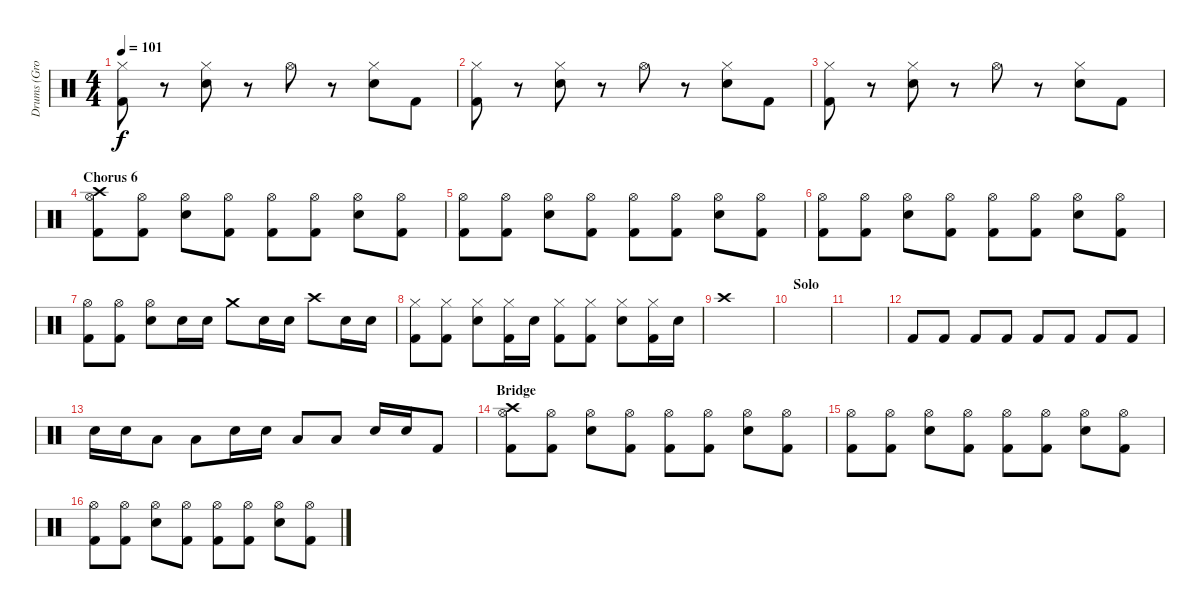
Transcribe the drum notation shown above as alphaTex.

\track ("Drums (Grohl)" "Drums (Gro") {instrument percussion}
\staff {score}
\articulation defaults
\ts (4 4)
\tempo 101
\clef neutral
\ks c
("Hi-Hat (closed)" "Kick (hit) 2").8{dy f} r.8 ("Hi-Hat (closed)" "Snare (hit) 2").8 r.8 "Hi-Hat (open)".8 r.8 ("Hi-Hat (closed)" "Snare (hit) 2").8 "Kick (hit) 2".8 |
("Hi-Hat (closed)" "Kick (hit) 2").8 r.8 ("Hi-Hat (closed)" "Snare (hit) 2").8 r.8 "Hi-Hat (open)".8 r.8 ("Hi-Hat (closed)" "Snare (hit) 2").8 "Kick (hit) 2".8 |
("Hi-Hat (closed)" "Kick (hit) 2").8 r.8 ("Hi-Hat (closed)" "Snare (hit) 2").8 r.8 "Hi-Hat (open)".8 r.8 ("Hi-Hat (closed)" "Snare (hit) 2").8 "Kick (hit) 2".8 |
\section ("" "Chorus 6")
("Hi-Hat (open)" "Kick (hit) 2" "Crash high (hit)").8 ("Hi-Hat (open)" "Kick (hit) 2").8 ("Hi-Hat (open)" "Snare (hit) 2").8 ("Hi-Hat (open)" "Kick (hit) 2").8 ("Hi-Hat (open)" "Kick (hit) 2").8 ("Hi-Hat (open)" "Kick (hit) 2").8 ("Hi-Hat (open)" "Snare (hit) 2").8 ("Hi-Hat (open)" "Kick (hit) 2").8 |
("Hi-Hat (open)" "Kick (hit) 2").8 ("Hi-Hat (open)" "Kick (hit) 2").8 ("Hi-Hat (open)" "Snare (hit) 2").8 ("Hi-Hat (open)" "Kick (hit) 2").8 ("Hi-Hat (open)" "Kick (hit) 2").8 ("Hi-Hat (open)" "Kick (hit) 2").8 ("Hi-Hat (open)" "Snare (hit) 2").8 ("Hi-Hat (open)" "Kick (hit) 2").8 |
("Hi-Hat (open)" "Kick (hit) 2").8 ("Hi-Hat (open)" "Kick (hit) 2").8 ("Hi-Hat (open)" "Snare (hit) 2").8 ("Hi-Hat (open)" "Kick (hit) 2").8 ("Hi-Hat (open)" "Kick (hit) 2").8 ("Hi-Hat (open)" "Kick (hit) 2").8 ("Hi-Hat (open)" "Snare (hit) 2").8 ("Hi-Hat (open)" "Kick (hit) 2").8 |
("Hi-Hat (open)" "Kick (hit) 2").8 ("Hi-Hat (open)" "Kick (hit) 2").8 ("Hi-Hat (open)" "Snare (hit) 2").8 "Snare (hit) 2".16 "Snare (hit) 2".16 "Crash medium (hit)".8 "Snare (hit) 2".16 "Snare (hit) 2".16 "Crash high (hit)".8 "Snare (hit) 2".16 "Snare (hit) 2".16 |
("Hi-Hat (closed)" "Kick (hit) 2").8 ("Hi-Hat (closed)" "Kick (hit) 2").8 ("Hi-Hat (closed)" "Snare (hit) 2").8 ("Hi-Hat (closed)" "Kick (hit) 2").16 "Snare (hit) 2".16 ("Hi-Hat (closed)" "Kick (hit) 2").8 ("Hi-Hat (closed)" "Kick (hit) 2").8 ("Hi-Hat (closed)" "Snare (hit) 2").8 ("Hi-Hat (closed)" "Kick (hit) 2").16 "Snare (hit) 2".16 |
"Crash high (hit)".1 |
\section ("" "Solo")
|
|
"Kick (hit) 2".8 "Kick (hit) 2".8 "Kick (hit) 2".8 "Kick (hit) 2".8 "Kick (hit) 2".8 "Kick (hit) 2".8 "Kick (hit) 2".8 "Kick (hit) 2".8 |
"Snare (hit) 2".16 "Snare (hit) 2".16 "Low Tom (hit)".8 "Low Tom (hit)".8 "Snare (hit) 2".16 "Snare (hit) 2".16 "Low Tom (hit)".8 "Low Tom (hit)".8 "Snare (hit) 2".16 "Snare (hit) 2".16 "Kick (hit) 2".8 |
\section ("" "Bridge")
("Hi-Hat (open)" "Kick (hit) 2" "Crash high (hit)").8 ("Hi-Hat (open)" "Kick (hit) 2").8 ("Hi-Hat (open)" "Snare (hit) 2").8 ("Hi-Hat (open)" "Kick (hit) 2").8 ("Hi-Hat (open)" "Kick (hit) 2").8 ("Hi-Hat (open)" "Kick (hit) 2").8 ("Hi-Hat (open)" "Snare (hit) 2").8 ("Hi-Hat (open)" "Kick (hit) 2").8 |
("Hi-Hat (open)" "Kick (hit) 2").8 ("Hi-Hat (open)" "Kick (hit) 2").8 ("Hi-Hat (open)" "Snare (hit) 2").8 ("Hi-Hat (open)" "Kick (hit) 2").8 ("Hi-Hat (open)" "Kick (hit) 2").8 ("Hi-Hat (open)" "Kick (hit) 2").8 ("Hi-Hat (open)" "Snare (hit) 2").8 ("Hi-Hat (open)" "Kick (hit) 2").8 |
("Hi-Hat (open)" "Kick (hit) 2").8 ("Hi-Hat (open)" "Kick (hit) 2").8 ("Hi-Hat (open)" "Snare (hit) 2").8 ("Hi-Hat (open)" "Kick (hit) 2").8 ("Hi-Hat (open)" "Kick (hit) 2").8 ("Hi-Hat (open)" "Kick (hit) 2").8 ("Hi-Hat (open)" "Snare (hit) 2").8 ("Hi-Hat (open)" "Kick (hit) 2").8
